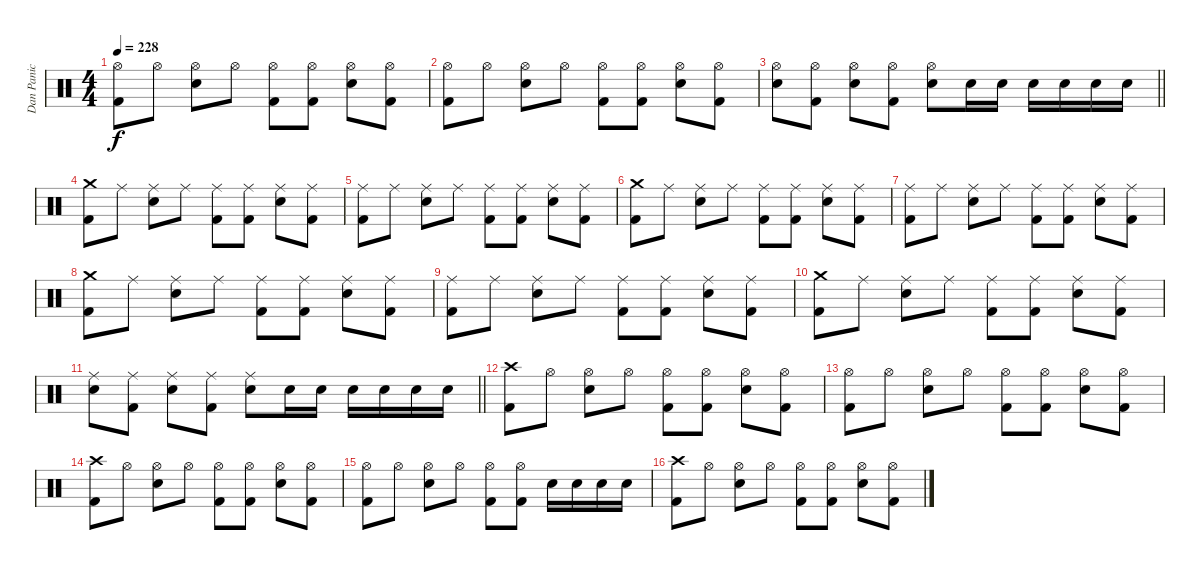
\track ("Dan Panic" "Dan Panic") {instrument percussion}
\staff {score}
\articulation defaults
\ts (4 4)
\tempo 228
\clef neutral
\ks c
("Hi-Hat (open)" "Kick (hit) 2").8{dy f} "Hi-Hat (open)".8 ("Hi-Hat (open)" "Electric Snare (hit)").8 "Hi-Hat (open)".8 ("Hi-Hat (open)" "Kick (hit) 2").8 ("Hi-Hat (open)" "Kick (hit) 2").8 ("Hi-Hat (open)" "Electric Snare (hit)").8 ("Hi-Hat (open)" "Kick (hit) 2").8 |
("Hi-Hat (open)" "Kick (hit) 2").8 "Hi-Hat (open)".8 ("Hi-Hat (open)" "Electric Snare (hit)").8 "Hi-Hat (open)".8 ("Hi-Hat (open)" "Kick (hit) 2").8 ("Hi-Hat (open)" "Kick (hit) 2").8 ("Hi-Hat (open)" "Electric Snare (hit)").8 ("Hi-Hat (open)" "Kick (hit) 2").8 |
\barLineRight lightlight
("Hi-Hat (open)" "Electric Snare (hit)").8 ("Hi-Hat (open)" "Kick (hit) 2").8 ("Hi-Hat (open)" "Electric Snare (hit)").8 ("Hi-Hat (open)" "Kick (hit) 2").8 ("Hi-Hat (open)" "Electric Snare (hit)").8 "Electric Snare (hit)".16 "Electric Snare (hit)".16 "Electric Snare (hit)".16 "Electric Snare (hit)".16 "Electric Snare (hit)".16 "Electric Snare (hit)".16 |
\section ("" "")
("Crash medium (hit)" "Kick (hit) 2").8 "Ride (middle)".8 ("Ride (middle)" "Electric Snare (hit)").8 "Ride (middle)".8 ("Ride (middle)" "Kick (hit) 2").8 ("Ride (middle)" "Kick (hit) 2").8 ("Ride (middle)" "Electric Snare (hit)").8 ("Ride (middle)" "Kick (hit) 2").8 |
("Ride (middle)" "Kick (hit) 2").8 "Ride (middle)".8 ("Ride (middle)" "Electric Snare (hit)").8 "Ride (middle)".8 ("Ride (middle)" "Kick (hit) 2").8 ("Ride (middle)" "Kick (hit) 2").8 ("Ride (middle)" "Electric Snare (hit)").8 ("Ride (middle)" "Kick (hit) 2").8 |
("Crash medium (hit)" "Kick (hit) 2").8 "Ride (middle)".8 ("Ride (middle)" "Electric Snare (hit)").8 "Ride (middle)".8 ("Ride (middle)" "Kick (hit) 2").8 ("Ride (middle)" "Kick (hit) 2").8 ("Ride (middle)" "Electric Snare (hit)").8 ("Ride (middle)" "Kick (hit) 2").8 |
("Ride (middle)" "Kick (hit) 2").8 "Ride (middle)".8 ("Ride (middle)" "Electric Snare (hit)").8 "Ride (middle)".8 ("Ride (middle)" "Kick (hit) 2").8 ("Ride (middle)" "Kick (hit) 2").8 ("Ride (middle)" "Electric Snare (hit)").8 ("Ride (middle)" "Kick (hit) 2").8 |
("Crash medium (hit)" "Kick (hit) 2").8 "Ride (middle)".8 ("Ride (middle)" "Electric Snare (hit)").8 "Ride (middle)".8 ("Ride (middle)" "Kick (hit) 2").8 ("Ride (middle)" "Kick (hit) 2").8 ("Ride (middle)" "Electric Snare (hit)").8 ("Ride (middle)" "Kick (hit) 2").8 |
("Ride (middle)" "Kick (hit) 2").8 "Ride (middle)".8 ("Ride (middle)" "Electric Snare (hit)").8 "Ride (middle)".8 ("Ride (middle)" "Kick (hit) 2").8 ("Ride (middle)" "Kick (hit) 2").8 ("Ride (middle)" "Electric Snare (hit)").8 ("Ride (middle)" "Kick (hit) 2").8 |
("Crash medium (hit)" "Kick (hit) 2").8 "Ride (middle)".8 ("Ride (middle)" "Electric Snare (hit)").8 "Ride (middle)".8 ("Ride (middle)" "Kick (hit) 2").8 ("Ride (middle)" "Kick (hit) 2").8 ("Ride (middle)" "Electric Snare (hit)").8 ("Ride (middle)" "Kick (hit) 2").8 |
\barLineRight lightlight
("Ride (middle)" "Electric Snare (hit)").8 ("Ride (middle)" "Kick (hit) 2").8 ("Ride (middle)" "Electric Snare (hit)").8 ("Ride (middle)" "Kick (hit) 2").8 ("Ride (middle)" "Electric Snare (hit)").8 "Electric Snare (hit)".16 "Electric Snare (hit)".16 "Electric Snare (hit)".16 "Electric Snare (hit)".16 "Electric Snare (hit)".16 "Electric Snare (hit)".16 |
\section ("" "")
("Crash high (hit)" "Kick (hit) 2").8 "Hi-Hat (open)".8 ("Hi-Hat (open)" "Electric Snare (hit)").8 "Hi-Hat (open)".8 ("Hi-Hat (open)" "Kick (hit) 2").8 ("Hi-Hat (open)" "Kick (hit) 2").8 ("Hi-Hat (open)" "Electric Snare (hit)").8 ("Hi-Hat (open)" "Kick (hit) 2").8 |
("Hi-Hat (open)" "Kick (hit) 2").8 "Hi-Hat (open)".8 ("Hi-Hat (open)" "Electric Snare (hit)").8 "Hi-Hat (open)".8 ("Hi-Hat (open)" "Kick (hit) 2").8 ("Hi-Hat (open)" "Kick (hit) 2").8 ("Hi-Hat (open)" "Electric Snare (hit)").8 ("Hi-Hat (open)" "Kick (hit) 2").8 |
("Crash high (hit)" "Kick (hit) 2").8 "Hi-Hat (open)".8 ("Hi-Hat (open)" "Electric Snare (hit)").8 "Hi-Hat (open)".8 ("Hi-Hat (open)" "Kick (hit) 2").8 ("Hi-Hat (open)" "Kick (hit) 2").8 ("Hi-Hat (open)" "Electric Snare (hit)").8 ("Hi-Hat (open)" "Kick (hit) 2").8 |
("Hi-Hat (open)" "Kick (hit) 2").8 "Hi-Hat (open)".8 ("Hi-Hat (open)" "Electric Snare (hit)").8 "Hi-Hat (open)".8 ("Hi-Hat (open)" "Kick (hit) 2").8 ("Hi-Hat (open)" "Kick (hit) 2").8 "Electric Snare (hit)".16 "Electric Snare (hit)".16 "Electric Snare (hit)".16 "Electric Snare (hit)".16 |
("Crash high (hit)" "Kick (hit) 2").8 "Hi-Hat (open)".8 ("Hi-Hat (open)" "Electric Snare (hit)").8 "Hi-Hat (open)".8 ("Hi-Hat (open)" "Kick (hit) 2").8 ("Hi-Hat (open)" "Kick (hit) 2").8 ("Hi-Hat (open)" "Electric Snare (hit)").8 ("Hi-Hat (open)" "Kick (hit) 2").8
